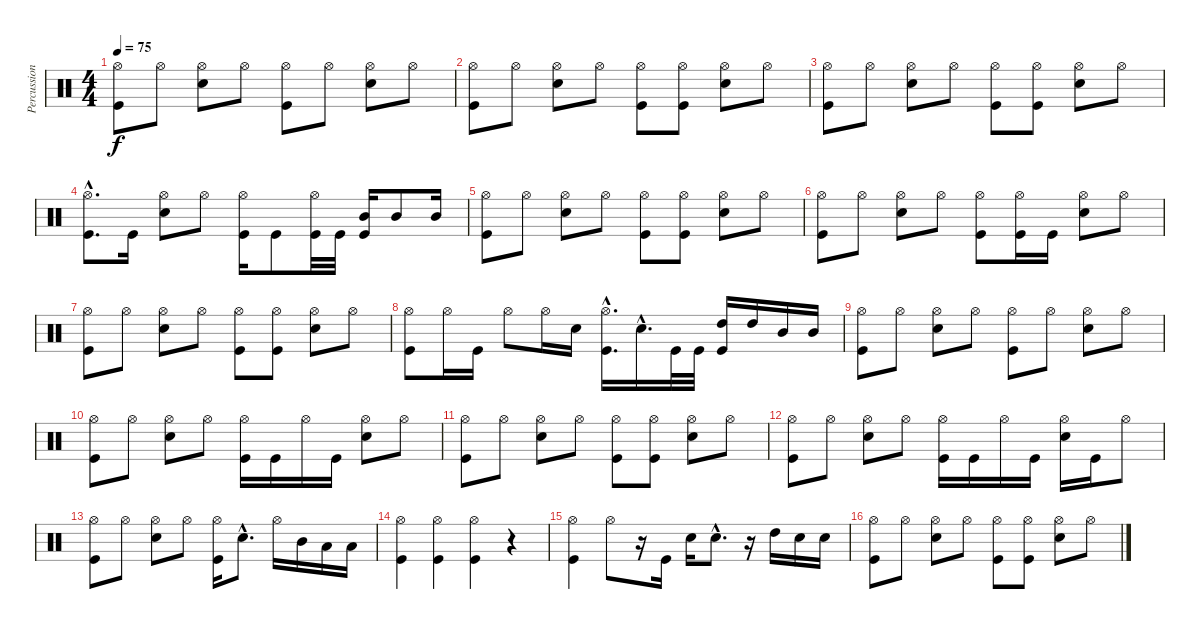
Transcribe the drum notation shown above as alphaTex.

\track ("Percussion" "Percussion") {instrument percussion}
\staff {score}
\articulation defaults
\ts (4 4)
\tempo 75
\clef neutral
\ks c
("Hi-Hat (open)" "Kick (hit)").8{dy f} "Hi-Hat (open)".8 ("Hi-Hat (open)" "Snare (hit) 2").8 "Hi-Hat (open)".8 ("Hi-Hat (open)" "Kick (hit)").8 "Hi-Hat (open)".8 ("Hi-Hat (open)" "Snare (hit) 2").8 "Hi-Hat (open)".8 |
("Hi-Hat (open)" "Kick (hit)").8 "Hi-Hat (open)".8 ("Hi-Hat (open)" "Snare (hit) 2").8 "Hi-Hat (open)".8 ("Hi-Hat (open)" "Kick (hit)").8 ("Hi-Hat (open)" "Kick (hit)").8 ("Hi-Hat (open)" "Snare (hit) 2").8 "Hi-Hat (open)".8 |
("Hi-Hat (open)" "Kick (hit)").8 "Hi-Hat (open)".8 ("Hi-Hat (open)" "Snare (hit) 2").8 "Hi-Hat (open)".8 ("Hi-Hat (open)" "Kick (hit)").8 ("Hi-Hat (open)" "Kick (hit)").8 ("Hi-Hat (open)" "Snare (hit) 2").8 "Hi-Hat (open)".8 |
("Hi-Hat (open)"{hac} "Kick (hit)"{hac}).8{d} "Kick (hit)".16 ("Hi-Hat (open)" "Snare (hit) 2").8 "Hi-Hat (open)".8 ("Hi-Hat (open)" "Kick (hit)").16 "Kick (hit)".8 ("Hi-Hat (open)" "Kick (hit)").32 "Kick (hit)".32 ("Mid Tom (hit)" "Kick (hit)").16 "Mid Tom (hit)".8 "Mid Tom (hit)".16 |
("Hi-Hat (open)" "Kick (hit)").8 "Hi-Hat (open)".8 ("Hi-Hat (open)" "Snare (hit) 2").8 "Hi-Hat (open)".8 ("Hi-Hat (open)" "Kick (hit)").8 ("Hi-Hat (open)" "Kick (hit)").8 ("Hi-Hat (open)" "Snare (hit) 2").8 "Hi-Hat (open)".8 |
("Hi-Hat (open)" "Kick (hit)").8 "Hi-Hat (open)".8 ("Hi-Hat (open)" "Snare (hit) 2").8 "Hi-Hat (open)".8 ("Hi-Hat (open)" "Kick (hit)").8 ("Hi-Hat (open)" "Kick (hit)").16 "Kick (hit)".16 ("Hi-Hat (open)" "Snare (hit) 2").8 "Hi-Hat (open)".8 |
("Hi-Hat (open)" "Kick (hit)").8 "Hi-Hat (open)".8 ("Hi-Hat (open)" "Snare (hit) 2").8 "Hi-Hat (open)".8 ("Hi-Hat (open)" "Kick (hit)").8 ("Hi-Hat (open)" "Kick (hit)").8 ("Hi-Hat (open)" "Snare (hit) 2").8 "Hi-Hat (open)".8 |
("Hi-Hat (open)" "Kick (hit)").8 "Hi-Hat (open)".16 "Kick (hit)".16 "Hi-Hat (open)".8 "Hi-Hat (open)".16 "Snare (hit) 2".16 ("Hi-Hat (open)"{hac} "Kick (hit)"{hac}).16{d} "Snare (hit) 2"{hac}.16{d} "Kick (hit)".32 "Kick (hit)".32 ("High Tom (hit)" "Kick (hit)").16 "High Tom (hit)".16 "Mid Tom (hit)".16 "Mid Tom (hit)".16 |
("Hi-Hat (open)" "Kick (hit)").8 "Hi-Hat (open)".8 ("Hi-Hat (open)" "Snare (hit) 2").8 "Hi-Hat (open)".8 ("Hi-Hat (open)" "Kick (hit)").8 "Hi-Hat (open)".8 ("Hi-Hat (open)" "Snare (hit) 2").8 "Hi-Hat (open)".8 |
("Hi-Hat (open)" "Kick (hit)").8 "Hi-Hat (open)".8 ("Hi-Hat (open)" "Snare (hit) 2").8 "Hi-Hat (open)".8 ("Hi-Hat (open)" "Kick (hit)").16 "Kick (hit)".16 "Hi-Hat (open)".16 "Kick (hit)".16 ("Hi-Hat (open)" "Snare (hit) 2").8 "Hi-Hat (open)".8 |
("Hi-Hat (open)" "Kick (hit)").8 "Hi-Hat (open)".8 ("Hi-Hat (open)" "Snare (hit) 2").8 "Hi-Hat (open)".8 ("Hi-Hat (open)" "Kick (hit)").8 ("Hi-Hat (open)" "Kick (hit)").8 ("Hi-Hat (open)" "Snare (hit) 2").8 "Hi-Hat (open)".8 |
("Hi-Hat (open)" "Kick (hit)").8 "Hi-Hat (open)".8 ("Hi-Hat (open)" "Snare (hit) 2").8 "Hi-Hat (open)".8 ("Hi-Hat (open)" "Kick (hit)").16 "Kick (hit)".16 "Hi-Hat (open)".16 "Kick (hit)".16 ("Hi-Hat (open)" "Snare (hit) 2").16 "Kick (hit)".16 "Hi-Hat (open)".8 |
("Hi-Hat (open)" "Kick (hit)").8 "Hi-Hat (open)".8 ("Hi-Hat (open)" "Snare (hit) 2").8 "Hi-Hat (open)".8 ("Hi-Hat (open)" "Kick (hit)").16 "Snare (hit) 2"{hac}.8{d} "Hi-Hat (open)".16 "Mid Tom (hit)".16 "Low Tom (hit)".16 "Low Tom (hit)".16 |
("Hi-Hat (open)" "Kick (hit)").4 ("Hi-Hat (open)" "Kick (hit)").4 ("Hi-Hat (open)" "Kick (hit)").4 r.4 |
("Hi-Hat (open)" "Kick (hit)").4 "Hi-Hat (open)".8 r.16 "Kick (hit)".16 "Snare (hit) 2".16 "Snare (hit) 2"{hac}.8{d} r.16 "High Tom (hit)".16 "Snare (hit) 2".16 "Snare (hit) 2".16 |
("Hi-Hat (open)" "Kick (hit)").8 "Hi-Hat (open)".8 ("Hi-Hat (open)" "Snare (hit) 2").8 "Hi-Hat (open)".8 ("Hi-Hat (open)" "Kick (hit)").8 ("Hi-Hat (open)" "Kick (hit)").8 ("Hi-Hat (open)" "Snare (hit) 2").8 "Hi-Hat (open)".8
